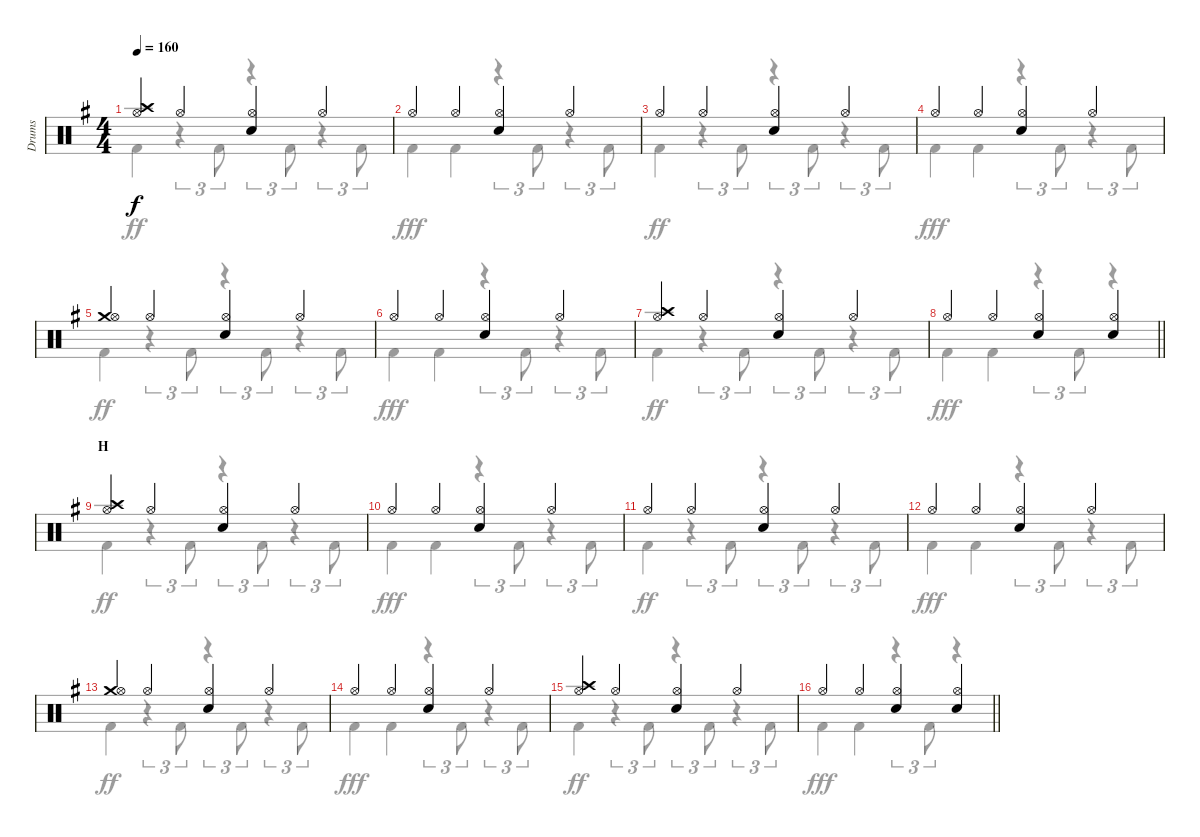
\track ("Drums" "Drums") {instrument percussion}
\staff {score}
\articulation defaults
\voice
\ts (4 4)
\tempo 160
\clef neutral
\ks eminor
("Crash high (hit)" "Hi-Hat (open)").4{dy f} "Hi-Hat (open)".4 ("Hi-Hat (open)" "Snare (hit) 2").4 "Hi-Hat (open)".4 |
"Hi-Hat (open)".4 "Hi-Hat (open)".4 ("Hi-Hat (open)" "Snare (hit) 2").4 "Hi-Hat (open)".4 |
"Hi-Hat (open)".4 "Hi-Hat (open)".4 ("Hi-Hat (open)" "Snare (hit) 2").4 "Hi-Hat (open)".4 |
"Hi-Hat (open)".4 "Hi-Hat (open)".4 ("Hi-Hat (open)" "Snare (hit) 2").4 "Hi-Hat (open)".4 |
("Crash medium (hit)" "Hi-Hat (open)").4 "Hi-Hat (open)".4 ("Hi-Hat (open)" "Snare (hit) 2").4 "Hi-Hat (open)".4 |
"Hi-Hat (open)".4 "Hi-Hat (open)".4 ("Hi-Hat (open)" "Snare (hit) 2").4 "Hi-Hat (open)".4 |
("Crash high (hit)" "Hi-Hat (open)").4 "Hi-Hat (open)".4 ("Hi-Hat (open)" "Snare (hit) 2").4 "Hi-Hat (open)".4 |
\barLineRight lightlight "Hi-Hat (open)".4 "Hi-Hat (open)".4
("Hi-Hat (open)" "Snare (hit) 2").4 ("Hi-Hat (open)" "Snare (hit) 2").4 |
\section ("" "H")
("Crash high (hit)" "Hi-Hat (open)").4 "Hi-Hat (open)".4 ("Hi-Hat (open)" "Snare (hit) 2").4 "Hi-Hat (open)".4 |
"Hi-Hat (open)".4 "Hi-Hat (open)".4 ("Hi-Hat (open)" "Snare (hit) 2").4 "Hi-Hat (open)".4 |
"Hi-Hat (open)".4 "Hi-Hat (open)".4 ("Hi-Hat (open)" "Snare (hit) 2").4 "Hi-Hat (open)".4 |
"Hi-Hat (open)".4 "Hi-Hat (open)".4 ("Hi-Hat (open)" "Snare (hit) 2").4 "Hi-Hat (open)".4 |
("Crash medium (hit)" "Hi-Hat (open)").4 "Hi-Hat (open)".4 ("Hi-Hat (open)" "Snare (hit) 2").4 "Hi-Hat (open)".4 |
"Hi-Hat (open)".4 "Hi-Hat (open)".4 ("Hi-Hat (open)" "Snare (hit) 2").4 "Hi-Hat (open)".4 |
("Crash high (hit)" "Hi-Hat (open)").4 "Hi-Hat (open)".4 ("Hi-Hat (open)" "Snare (hit) 2").4 "Hi-Hat (open)".4 |
\barLineRight lightlight "Hi-Hat (open)".4 "Hi-Hat (open)".4
("Hi-Hat (open)" "Snare (hit) 2").4 ("Hi-Hat (open)" "Snare (hit) 2").4
\voice
\clef neutral
\ottava regular
\simile none
\ks eminor "Kick (hit) 2".4{dy ff}
r.4{tu (3 2)} "Kick (hit) 2".8{tu (3 2)} r.4{tu (3 2)} "Kick (hit) 2".8{tu (3 2)} r.4{tu (3 2)} "Kick (hit) 2".8{tu (3 2)} |
"Kick (hit) 2".4{dy fff} "Kick (hit) 2".4 r.4{tu (3 2)} "Kick (hit) 2".8{tu (3 2)} r.4{tu (3 2)} "Kick (hit) 2".8{tu (3 2)} |
"Kick (hit) 2".4{dy ff} r.4{tu (3 2)} "Kick (hit) 2".8{tu (3 2)} r.4{tu (3 2)} "Kick (hit) 2".8{tu (3 2)} r.4{tu (3 2)} "Kick (hit) 2".8{tu (3 2)} |
"Kick (hit) 2".4{dy fff} "Kick (hit) 2".4 r.4{tu (3 2)} "Kick (hit) 2".8{tu (3 2)} r.4{tu (3 2)} "Kick (hit) 2".8{tu (3 2)} |
"Kick (hit) 2".4{dy ff} r.4{tu (3 2)} "Kick (hit) 2".8{tu (3 2)} r.4{tu (3 2)} "Kick (hit) 2".8{tu (3 2)} r.4{tu (3 2)} "Kick (hit) 2".8{tu (3 2)} |
"Kick (hit) 2".4{dy fff} "Kick (hit) 2".4 r.4{tu (3 2)} "Kick (hit) 2".8{tu (3 2)} r.4{tu (3 2)} "Kick (hit) 2".8{tu (3 2)} |
"Kick (hit) 2".4{dy ff} r.4{tu (3 2)} "Kick (hit) 2".8{tu (3 2)} r.4{tu (3 2)} "Kick (hit) 2".8{tu (3 2)} r.4{tu (3 2)} "Kick (hit) 2".8{tu (3 2)} |
\barLineRight lightlight "Kick (hit) 2".4{dy fff} "Kick (hit) 2".4
r.4{tu (3 2)} "Kick (hit) 2".8{tu (3 2)} r.4 |
"Kick (hit) 2".4{dy ff} r.4{tu (3 2)} "Kick (hit) 2".8{tu (3 2)} r.4{tu (3 2)} "Kick (hit) 2".8{tu (3 2)} r.4{tu (3 2)} "Kick (hit) 2".8{tu (3 2)} |
"Kick (hit) 2".4{dy fff} "Kick (hit) 2".4 r.4{tu (3 2)} "Kick (hit) 2".8{tu (3 2)} r.4{tu (3 2)} "Kick (hit) 2".8{tu (3 2)} |
"Kick (hit) 2".4{dy ff} r.4{tu (3 2)} "Kick (hit) 2".8{tu (3 2)} r.4{tu (3 2)} "Kick (hit) 2".8{tu (3 2)} r.4{tu (3 2)} "Kick (hit) 2".8{tu (3 2)} |
"Kick (hit) 2".4{dy fff} "Kick (hit) 2".4 r.4{tu (3 2)} "Kick (hit) 2".8{tu (3 2)} r.4{tu (3 2)} "Kick (hit) 2".8{tu (3 2)} |
"Kick (hit) 2".4{dy ff} r.4{tu (3 2)} "Kick (hit) 2".8{tu (3 2)} r.4{tu (3 2)} "Kick (hit) 2".8{tu (3 2)} r.4{tu (3 2)} "Kick (hit) 2".8{tu (3 2)} |
"Kick (hit) 2".4{dy fff} "Kick (hit) 2".4 r.4{tu (3 2)} "Kick (hit) 2".8{tu (3 2)} r.4{tu (3 2)} "Kick (hit) 2".8{tu (3 2)} |
"Kick (hit) 2".4{dy ff} r.4{tu (3 2)} "Kick (hit) 2".8{tu (3 2)} r.4{tu (3 2)} "Kick (hit) 2".8{tu (3 2)} r.4{tu (3 2)} "Kick (hit) 2".8{tu (3 2)} |
\barLineRight lightlight "Kick (hit) 2".4{dy fff} "Kick (hit) 2".4
r.4{tu (3 2)} "Kick (hit) 2".8{tu (3 2)} r.4
